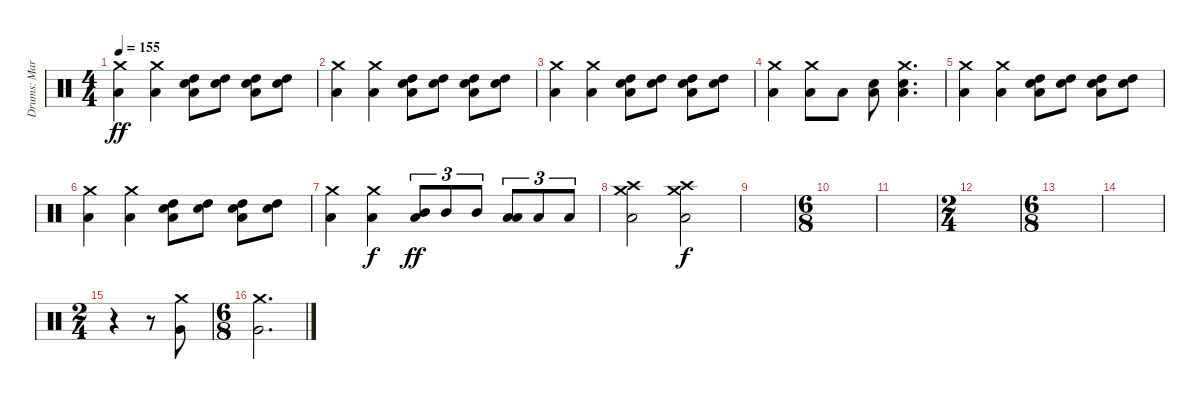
\track ("Drums: Mark Cross" "Drums: Mar") {instrument percussion}
\staff {score}
\articulation defaults
\ts (4 4)
\tempo 155
\clef neutral
\ks c
("Crash medium (hit)" "Low Tom (hit)").4{dy ff} ("Crash medium (hit)" "Low Tom (hit)").4 ("Snare (hit) 2" "High Tom (hit)" "Low Tom (hit)").8 ("Snare (hit) 2" "High Tom (hit)").8 ("Snare (hit) 2" "High Tom (hit)" "Low Tom (hit)").8 ("Snare (hit) 2" "High Tom (hit)").8 |
("Crash medium (hit)" "Low Tom (hit)").4 ("Crash medium (hit)" "Low Tom (hit)").4 ("Snare (hit) 2" "High Tom (hit)" "Low Tom (hit)").8 ("Snare (hit) 2" "High Tom (hit)").8 ("Snare (hit) 2" "High Tom (hit)" "Low Tom (hit)").8 ("Snare (hit) 2" "High Tom (hit)").8 |
("Crash medium (hit)" "Low Tom (hit)").4 ("Crash medium (hit)" "Low Tom (hit)").4 ("Snare (hit) 2" "High Tom (hit)" "Low Tom (hit)").8 ("Snare (hit) 2" "High Tom (hit)").8 ("Snare (hit) 2" "High Tom (hit)" "Low Tom (hit)").8 ("Snare (hit) 2" "High Tom (hit)").8 |
("Crash medium (hit)" "Low Tom (hit)").4 ("Crash medium (hit)" "Low Tom (hit)").8 "Low Tom (hit)".8 ("Snare (hit) 2" "Low Tom (hit)").8 ("Crash medium (hit)" "Snare (hit) 2" "Low Tom (hit)").4{d} |
("Crash medium (hit)" "Low Tom (hit)").4 ("Crash medium (hit)" "Low Tom (hit)").4 ("Snare (hit) 2" "High Tom (hit)" "Low Tom (hit)").8 ("Snare (hit) 2" "High Tom (hit)").8 ("Snare (hit) 2" "High Tom (hit)" "Low Tom (hit)").8 ("Snare (hit) 2" "High Tom (hit)").8 |
("Crash medium (hit)" "Low Tom (hit)").4 ("Crash medium (hit)" "Low Tom (hit)").4 ("Snare (hit) 2" "High Tom (hit)" "Low Tom (hit)").8 ("Snare (hit) 2" "High Tom (hit)").8 ("Snare (hit) 2" "High Tom (hit)" "Low Tom (hit)").8 ("Snare (hit) 2" "High Tom (hit)").8 |
("Crash medium (hit)" "Low Tom (hit)").4 ("Crash medium (hit)" "Low Tom (hit)").4{dy f} ("Low Tom (hit)" "Mid Tom (hit)").8{tu (3 2) dy ff} "Mid Tom (hit)".8{tu (3 2)} "Mid Tom (hit)".8{tu (3 2)} ("Low Tom (hit)" "Low Tom (hit)").8{tu (3 2)} "Low Tom (hit)".8{tu (3 2)} "Low Tom (hit)".8{tu (3 2)} |
("Crash medium (hit)" "Crash high (hit)" "Low Tom (hit)").2 ("Crash medium (hit)" "Crash high (hit)" "Low Tom (hit)").2{dy f} |
|
\ts (6 8)
|
|
\ts (2 4)
|
\ts (6 8)
|
|
\ts (2 4)
r.4 r.8 ("Crash medium (hit)" "Very Low Tom (hit)").8 |
\ts (6 8)
("Crash medium (hit)" "Very Low Tom (hit)").2{d}
